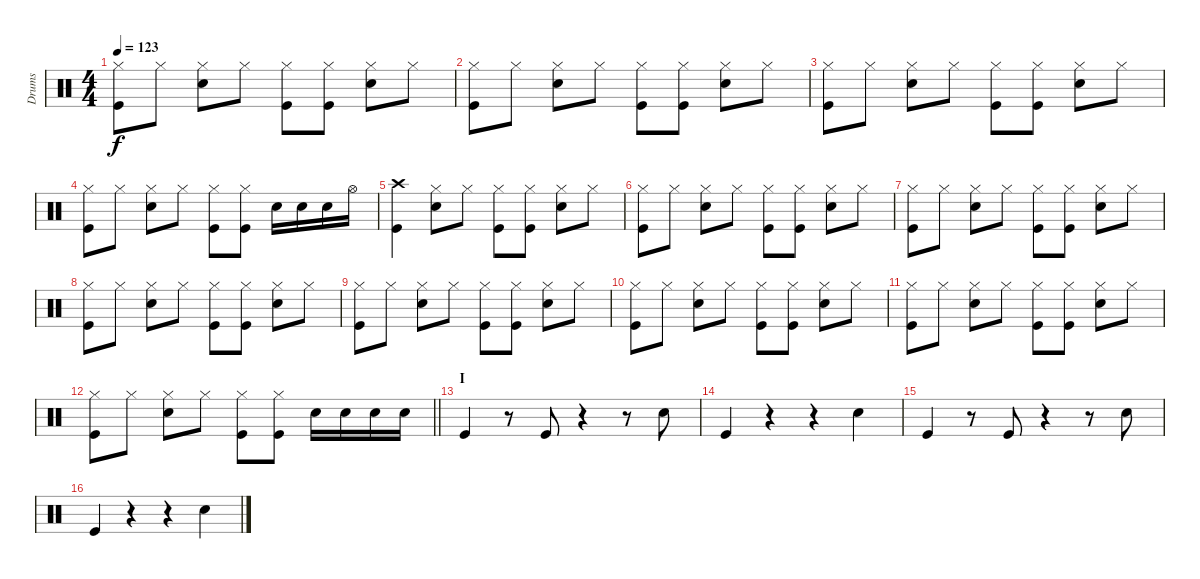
\track ("Drums" "Drums") {instrument percussion}
\staff {score}
\articulation defaults
\ts (4 4)
\tempo 123
\clef neutral
\ks c
("Hi-Hat (closed)" "Kick (hit)").8{dy f} "Hi-Hat (closed)".8 ("Hi-Hat (closed)" "Electric Snare (hit)").8 "Hi-Hat (closed)".8 ("Hi-Hat (closed)" "Kick (hit)").8 ("Hi-Hat (closed)" "Kick (hit)").8 ("Hi-Hat (closed)" "Electric Snare (hit)").8 "Hi-Hat (closed)".8 |
("Hi-Hat (closed)" "Kick (hit)").8 "Hi-Hat (closed)".8 ("Hi-Hat (closed)" "Electric Snare (hit)").8 "Hi-Hat (closed)".8 ("Hi-Hat (closed)" "Kick (hit)").8 ("Hi-Hat (closed)" "Kick (hit)").8 ("Hi-Hat (closed)" "Electric Snare (hit)").8 "Hi-Hat (closed)".8 |
("Hi-Hat (closed)" "Kick (hit)").8 "Hi-Hat (closed)".8 ("Hi-Hat (closed)" "Electric Snare (hit)").8 "Hi-Hat (closed)".8 ("Hi-Hat (closed)" "Kick (hit)").8 ("Hi-Hat (closed)" "Kick (hit)").8 ("Hi-Hat (closed)" "Electric Snare (hit)").8 "Hi-Hat (closed)".8 |
("Hi-Hat (closed)" "Kick (hit)").8 "Hi-Hat (closed)".8 ("Hi-Hat (closed)" "Electric Snare (hit)").8 "Hi-Hat (closed)".8 ("Hi-Hat (closed)" "Kick (hit)").8 ("Hi-Hat (closed)" "Kick (hit)").8 "Electric Snare (hit)".16 "Electric Snare (hit)".16 "Electric Snare (hit)".16 "Hi-Hat (open)".16 |
("Crash high (hit)" "Kick (hit)").4 ("Hi-Hat (closed)" "Electric Snare (hit)").8 "Hi-Hat (closed)".8 ("Hi-Hat (closed)" "Kick (hit)").8 ("Hi-Hat (closed)" "Kick (hit)").8 ("Hi-Hat (closed)" "Electric Snare (hit)").8 "Hi-Hat (closed)".8 |
("Hi-Hat (closed)" "Kick (hit)").8 "Hi-Hat (closed)".8 ("Hi-Hat (closed)" "Electric Snare (hit)").8 "Hi-Hat (closed)".8 ("Hi-Hat (closed)" "Kick (hit)").8 ("Hi-Hat (closed)" "Kick (hit)").8 ("Hi-Hat (closed)" "Electric Snare (hit)").8 "Hi-Hat (closed)".8 |
("Hi-Hat (closed)" "Kick (hit)").8 "Hi-Hat (closed)".8 ("Hi-Hat (closed)" "Electric Snare (hit)").8 "Hi-Hat (closed)".8 ("Hi-Hat (closed)" "Kick (hit)").8 ("Hi-Hat (closed)" "Kick (hit)").8 ("Hi-Hat (closed)" "Electric Snare (hit)").8 "Hi-Hat (closed)".8 |
("Hi-Hat (closed)" "Kick (hit)").8 "Hi-Hat (closed)".8 ("Hi-Hat (closed)" "Electric Snare (hit)").8 "Hi-Hat (closed)".8 ("Hi-Hat (closed)" "Kick (hit)").8 ("Hi-Hat (closed)" "Kick (hit)").8 ("Hi-Hat (closed)" "Electric Snare (hit)").8 "Hi-Hat (closed)".8 |
("Hi-Hat (closed)" "Kick (hit)").8 "Hi-Hat (closed)".8 ("Hi-Hat (closed)" "Electric Snare (hit)").8 "Hi-Hat (closed)".8 ("Hi-Hat (closed)" "Kick (hit)").8 ("Hi-Hat (closed)" "Kick (hit)").8 ("Hi-Hat (closed)" "Electric Snare (hit)").8 "Hi-Hat (closed)".8 |
("Hi-Hat (closed)" "Kick (hit)").8 "Hi-Hat (closed)".8 ("Hi-Hat (closed)" "Electric Snare (hit)").8 "Hi-Hat (closed)".8 ("Hi-Hat (closed)" "Kick (hit)").8 ("Hi-Hat (closed)" "Kick (hit)").8 ("Hi-Hat (closed)" "Electric Snare (hit)").8 "Hi-Hat (closed)".8 |
("Hi-Hat (closed)" "Kick (hit)").8 "Hi-Hat (closed)".8 ("Hi-Hat (closed)" "Electric Snare (hit)").8 "Hi-Hat (closed)".8 ("Hi-Hat (closed)" "Kick (hit)").8 ("Hi-Hat (closed)" "Kick (hit)").8 ("Hi-Hat (closed)" "Electric Snare (hit)").8 "Hi-Hat (closed)".8 |
\barLineRight lightlight
("Hi-Hat (closed)" "Kick (hit)").8 "Hi-Hat (closed)".8 ("Hi-Hat (closed)" "Electric Snare (hit)").8 "Hi-Hat (closed)".8 ("Hi-Hat (closed)" "Kick (hit)").8 ("Hi-Hat (closed)" "Kick (hit)").8 "Electric Snare (hit)".16 "Electric Snare (hit)".16 "Electric Snare (hit)".16 "Electric Snare (hit)".16 |
\section ("" "I")
"Kick (hit)".4 r.8 "Kick (hit)".8 r.4 r.8 "Electric Snare (hit)".8 |
"Kick (hit)".4 r.4 r.4 "Electric Snare (hit)".4 |
"Kick (hit)".4 r.8 "Kick (hit)".8 r.4 r.8 "Electric Snare (hit)".8 |
"Kick (hit)".4 r.4 r.4 "Electric Snare (hit)".4
